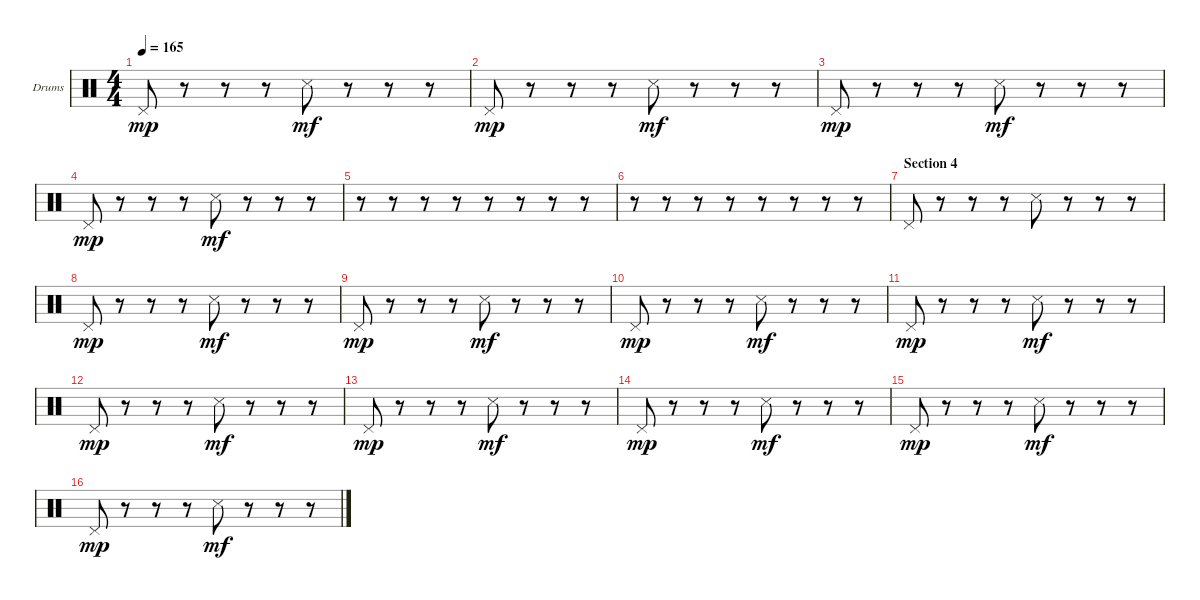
\bracketExtendMode groupsimilarinstruments
\firstSystemTrackNameOrientation horizontal
\otherSystemsTrackNameOrientation horizontal
\track ("Drumkit" "Drums") {instrument percussion}
\staff {score}
\articulation defaults
\ts (4 4)
\tempo 165
\clef neutral
\ks c "Pedal Hi-Hat (hit)".8{dy mp}
r.8 r.8 r.8 "Snare (side stick) 3".8{dy mf} r.8 r.8 r.8 |
"Pedal Hi-Hat (hit)".8{dy mp} r.8 r.8 r.8 "Snare (side stick) 3".8{dy mf} r.8 r.8 r.8 |
"Pedal Hi-Hat (hit)".8{dy mp} r.8 r.8 r.8 "Snare (side stick) 3".8{dy mf} r.8 r.8 r.8 |
"Pedal Hi-Hat (hit)".8{dy mp} r.8 r.8 r.8 "Snare (side stick) 3".8{dy mf} r.8 r.8 r.8 |
r.8 r.8 r.8 r.8 r.8 r.8 r.8 r.8 |
r.8 r.8 r.8 r.8 r.8 r.8 r.8 r.8 |
\section ("" "Section 4")
"Pedal Hi-Hat (hit)".8 r.8 r.8 r.8 "Snare (side stick) 3".8 r.8 r.8 r.8 |
"Pedal Hi-Hat (hit)".8{dy mp} r.8 r.8 r.8 "Snare (side stick) 3".8{dy mf} r.8 r.8 r.8 |
"Pedal Hi-Hat (hit)".8{dy mp} r.8 r.8 r.8 "Snare (side stick) 3".8{dy mf} r.8 r.8 r.8 |
"Pedal Hi-Hat (hit)".8{dy mp} r.8 r.8 r.8 "Snare (side stick) 3".8{dy mf} r.8 r.8 r.8 |
"Pedal Hi-Hat (hit)".8{dy mp} r.8 r.8 r.8 "Snare (side stick) 3".8{dy mf} r.8 r.8 r.8 |
"Pedal Hi-Hat (hit)".8{dy mp} r.8 r.8 r.8 "Snare (side stick) 3".8{dy mf} r.8 r.8 r.8 |
"Pedal Hi-Hat (hit)".8{dy mp} r.8 r.8 r.8 "Snare (side stick) 3".8{dy mf} r.8 r.8 r.8 |
"Pedal Hi-Hat (hit)".8{dy mp} r.8 r.8 r.8 "Snare (side stick) 3".8{dy mf} r.8 r.8 r.8 |
"Pedal Hi-Hat (hit)".8{dy mp} r.8 r.8 r.8 "Snare (side stick) 3".8{dy mf} r.8 r.8 r.8 |
"Pedal Hi-Hat (hit)".8{dy mp} r.8 r.8 r.8 "Snare (side stick) 3".8{dy mf} r.8 r.8 r.8
